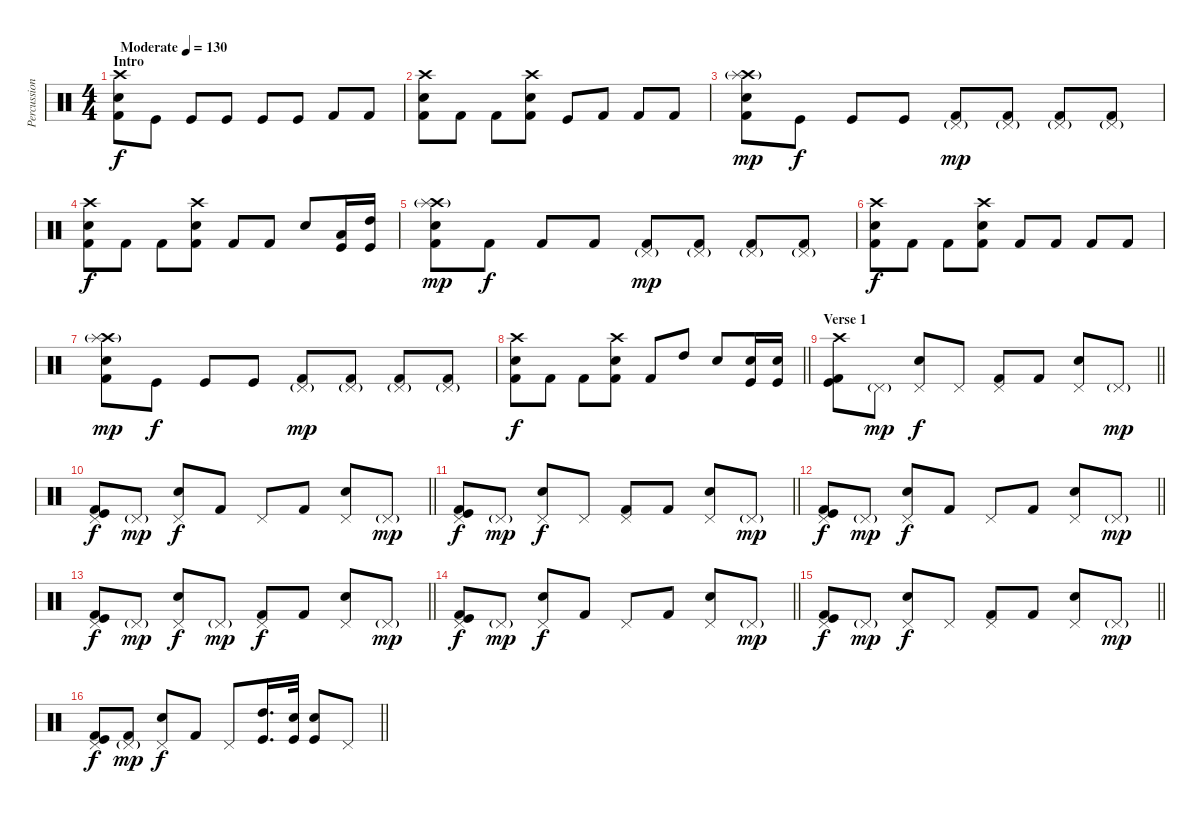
\track ("Percussion(Wendell Garcia)" "Percussion") {instrument percussion}
\staff {score}
\articulation defaults
\ts (4 4)
\section ("" "Intro")
\tempo (130 "Moderate")
\clef neutral
\ks c
("Crash high (hit)" "Electric Snare (hit)" "Kick (hit) 2").8{dy f} "Kick (hit)".8 "Kick (hit)".8 "Kick (hit)".8 "Kick (hit)".8 "Kick (hit)".8 "Kick (hit) 2".8 "Kick (hit) 2".8 |
("Crash high (hit)" "Electric Snare (hit)" "Kick (hit) 2").8 "Kick (hit) 2".8 "Kick (hit) 2".8 ("Crash high (hit)" "Electric Snare (hit)" "Kick (hit) 2").8 "Kick (hit)".8 "Kick (hit) 2".8 "Kick (hit) 2".8 "Kick (hit) 2".8 |
("Crash high (hit)"{g} "Splash (hit)"{g} "Electric Snare (hit)" "Kick (hit) 2").8{dy mp} "Kick (hit)".8{dy f} "Kick (hit)".8 "Kick (hit)".8 ("Kick (hit) 2" "Pedal Hi-Hat (hit)"{g}).8{dy mp} ("Kick (hit) 2" "Pedal Hi-Hat (hit)"{g}).8 ("Kick (hit) 2" "Pedal Hi-Hat (hit)"{g}).8 ("Kick (hit) 2" "Pedal Hi-Hat (hit)"{g}).8 |
("Crash high (hit)" "Electric Snare (hit)" "Kick (hit) 2").8{dy f} "Kick (hit) 2".8 "Kick (hit) 2".8 ("Crash high (hit)" "Electric Snare (hit)" "Kick (hit) 2").8 "Kick (hit) 2".8 "Kick (hit) 2".8 "Electric Snare (hit)".8 ("Kick (hit)" "Low Tom (hit)").16 ("Kick (hit)" "High Tom (hit)").16 |
("Crash high (hit)"{g} "Splash (hit)"{g} "Electric Snare (hit)" "Kick (hit) 2").8{dy mp} "Kick (hit) 2".8{dy f} "Kick (hit) 2".8 "Kick (hit) 2".8 ("Kick (hit) 2" "Pedal Hi-Hat (hit)"{g}).8{dy mp} ("Kick (hit) 2" "Pedal Hi-Hat (hit)"{g}).8 ("Kick (hit) 2" "Pedal Hi-Hat (hit)"{g}).8 ("Kick (hit) 2" "Pedal Hi-Hat (hit)"{g}).8 |
("Crash high (hit)" "Electric Snare (hit)" "Kick (hit) 2").8{dy f} "Kick (hit) 2".8 "Kick (hit) 2".8 ("Crash high (hit)" "Electric Snare (hit)" "Kick (hit) 2").8 "Kick (hit) 2".8 "Kick (hit) 2".8 "Kick (hit) 2".8 "Kick (hit) 2".8 |
("Crash high (hit)"{g} "Splash (hit)"{g} "Electric Snare (hit)" "Kick (hit) 2").8{dy mp} "Kick (hit)".8{dy f} "Kick (hit)".8 "Kick (hit)".8 ("Kick (hit) 2" "Pedal Hi-Hat (hit)"{g}).8{dy mp} ("Kick (hit) 2" "Pedal Hi-Hat (hit)"{g}).8 ("Kick (hit) 2" "Pedal Hi-Hat (hit)"{g}).8 ("Kick (hit) 2" "Pedal Hi-Hat (hit)"{g}).8 |
\barLineRight lightlight
("Crash high (hit)" "Electric Snare (hit)" "Kick (hit) 2").8{dy f} "Kick (hit) 2".8 "Kick (hit) 2".8 ("Crash high (hit)" "Electric Snare (hit)" "Kick (hit) 2").8 "Kick (hit) 2".8 "High Tom (hit)".8 "Electric Snare (hit)".8 ("Kick (hit)" "Electric Snare (hit)").16 ("Kick (hit)" "Electric Snare (hit)").16 |
\section ("" "Verse 1")
\barLineRight lightlight
("Crash high (hit)" "Kick (hit)" "Kick (hit) 2").8 "Pedal Hi-Hat (hit)"{g}.8{dy mp} ("Pedal Hi-Hat (hit)" "Electric Snare (hit)").8{dy f} "Pedal Hi-Hat (hit)".8 ("Pedal Hi-Hat (hit)" "Kick (hit) 2").8 "Kick (hit) 2".8 ("Pedal Hi-Hat (hit)" "Electric Snare (hit)").8 "Pedal Hi-Hat (hit)"{g}.8{dy mp} |
\barLineRight lightlight
("Pedal Hi-Hat (hit)" "Kick (hit)" "Kick (hit) 2").8{dy f} "Pedal Hi-Hat (hit)"{g}.8{dy mp} ("Pedal Hi-Hat (hit)" "Electric Snare (hit)").8{dy f} "Kick (hit) 2".8 "Pedal Hi-Hat (hit)".8 "Kick (hit) 2".8 ("Pedal Hi-Hat (hit)" "Electric Snare (hit)").8 "Pedal Hi-Hat (hit)"{g}.8{dy mp} |
\barLineRight lightlight
("Pedal Hi-Hat (hit)" "Kick (hit)" "Kick (hit) 2").8{dy f} "Pedal Hi-Hat (hit)"{g}.8{dy mp} ("Pedal Hi-Hat (hit)" "Electric Snare (hit)").8{dy f} "Pedal Hi-Hat (hit)".8 ("Pedal Hi-Hat (hit)" "Kick (hit) 2").8 "Kick (hit) 2".8 ("Pedal Hi-Hat (hit)" "Electric Snare (hit)").8 "Pedal Hi-Hat (hit)"{g}.8{dy mp} |
\barLineRight lightlight
("Pedal Hi-Hat (hit)" "Kick (hit)" "Kick (hit) 2").8{dy f} "Pedal Hi-Hat (hit)"{g}.8{dy mp} ("Pedal Hi-Hat (hit)" "Electric Snare (hit)").8{dy f} "Kick (hit) 2".8 "Pedal Hi-Hat (hit)".8 "Kick (hit) 2".8 ("Pedal Hi-Hat (hit)" "Electric Snare (hit)").8 "Pedal Hi-Hat (hit)"{g}.8{dy mp} |
\barLineRight lightlight
("Pedal Hi-Hat (hit)" "Kick (hit)" "Kick (hit) 2").8{dy f} "Pedal Hi-Hat (hit)"{g}.8{dy mp} ("Pedal Hi-Hat (hit)" "Electric Snare (hit)").8{dy f} "Pedal Hi-Hat (hit)"{g}.8{dy mp} ("Pedal Hi-Hat (hit)" "Kick (hit) 2").8{dy f} "Kick (hit) 2".8 ("Pedal Hi-Hat (hit)" "Electric Snare (hit)").8 "Pedal Hi-Hat (hit)"{g}.8{dy mp} |
\barLineRight lightlight
("Pedal Hi-Hat (hit)" "Kick (hit)" "Kick (hit) 2").8{dy f} "Pedal Hi-Hat (hit)"{g}.8{dy mp} ("Pedal Hi-Hat (hit)" "Electric Snare (hit)").8{dy f} "Kick (hit) 2".8 "Pedal Hi-Hat (hit)".8 "Kick (hit) 2".8 ("Pedal Hi-Hat (hit)" "Electric Snare (hit)").8 "Pedal Hi-Hat (hit)"{g}.8{dy mp} |
\barLineRight lightlight
("Pedal Hi-Hat (hit)" "Kick (hit)" "Kick (hit) 2").8{dy f} "Pedal Hi-Hat (hit)"{g}.8{dy mp} ("Pedal Hi-Hat (hit)" "Electric Snare (hit)").8{dy f} "Pedal Hi-Hat (hit)".8 ("Pedal Hi-Hat (hit)" "Kick (hit) 2").8 "Kick (hit) 2".8 ("Pedal Hi-Hat (hit)" "Electric Snare (hit)").8 "Pedal Hi-Hat (hit)"{g}.8{dy mp} |
\barLineRight lightlight
("Pedal Hi-Hat (hit)" "Kick (hit)" "Kick (hit) 2").8{dy f} ("Pedal Hi-Hat (hit)"{g} "Kick (hit) 2").8{dy mp} ("Pedal Hi-Hat (hit)" "Electric Snare (hit)").8{dy f} "Kick (hit) 2".8 "Pedal Hi-Hat (hit)".8 ("Kick (hit)" "High Tom (hit)").16{d} ("Kick (hit)" "Electric Snare (hit)").32 ("Kick (hit)" "Electric Snare (hit)").8 "Pedal Hi-Hat (hit)".8
